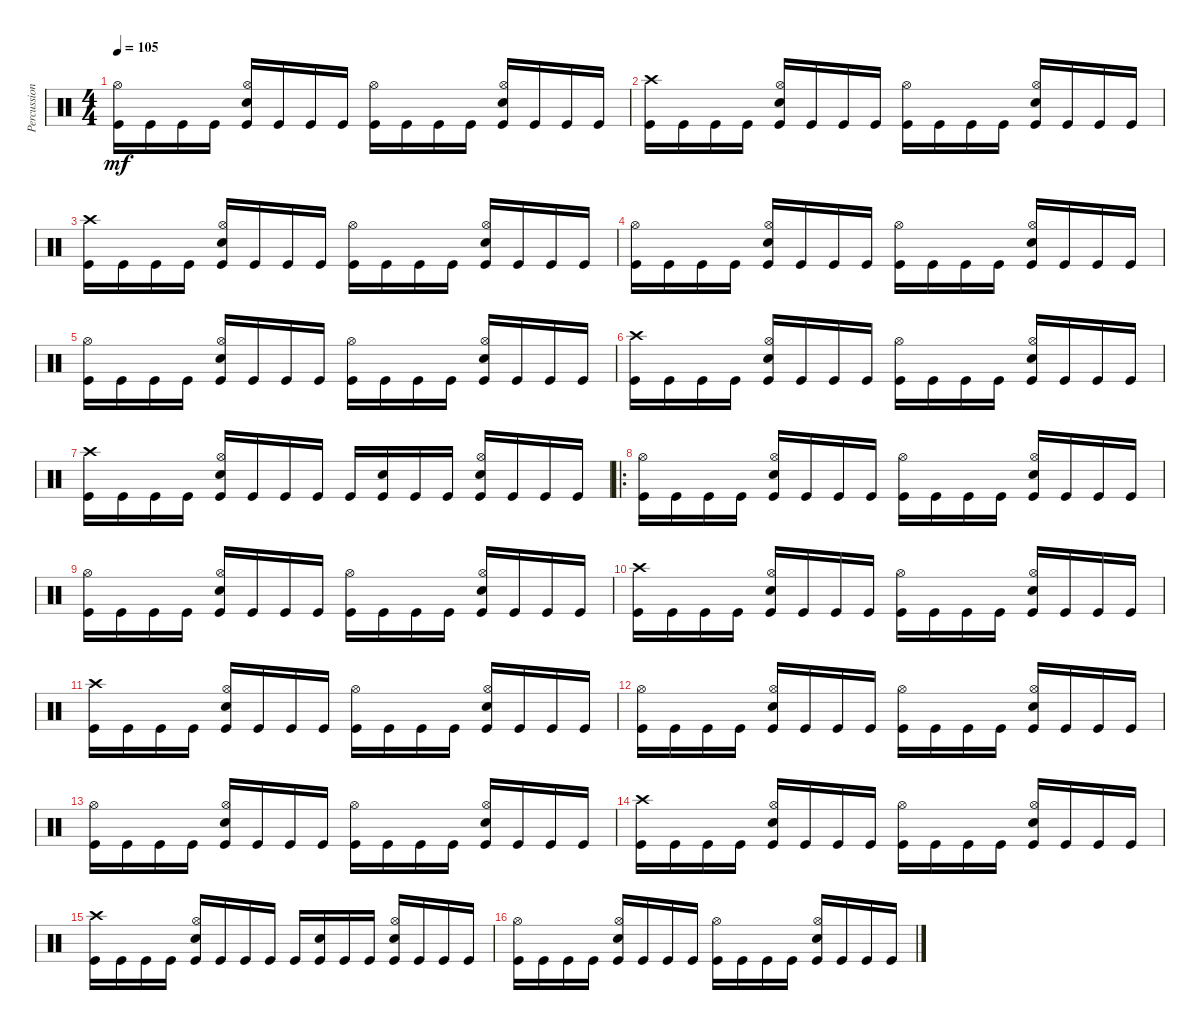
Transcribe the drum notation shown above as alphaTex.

\track ("Percussions" "Percussion") {instrument percussion}
\staff {score}
\articulation defaults
\ts (4 4)
\tempo 105
\clef neutral
\ks c
("Kick (hit)" "Hi-Hat (open)").16{dy mf} "Kick (hit)".16 "Kick (hit)".16 "Kick (hit)".16 ("Kick (hit)" "Electric Snare (hit)" "Hi-Hat (open)").16 "Kick (hit)".16 "Kick (hit)".16 "Kick (hit)".16 ("Kick (hit)" "Hi-Hat (open)").16 "Kick (hit)".16 "Kick (hit)".16 "Kick (hit)".16 ("Kick (hit)" "Electric Snare (hit)" "Hi-Hat (open)").16 "Kick (hit)".16 "Kick (hit)".16 "Kick (hit)".16 |
("Kick (hit)" "Crash high (hit)").16 "Kick (hit)".16 "Kick (hit)".16 "Kick (hit)".16 ("Kick (hit)" "Electric Snare (hit)" "Hi-Hat (open)").16 "Kick (hit)".16 "Kick (hit)".16 "Kick (hit)".16 ("Kick (hit)" "Hi-Hat (open)").16 "Kick (hit)".16 "Kick (hit)".16 "Kick (hit)".16 ("Kick (hit)" "Electric Snare (hit)" "Hi-Hat (open)").16 "Kick (hit)".16 "Kick (hit)".16 "Kick (hit)".16 |
("Kick (hit)" "Crash high (hit)").16 "Kick (hit)".16 "Kick (hit)".16 "Kick (hit)".16 ("Kick (hit)" "Electric Snare (hit)" "Hi-Hat (open)").16 "Kick (hit)".16 "Kick (hit)".16 "Kick (hit)".16 ("Kick (hit)" "Hi-Hat (open)").16 "Kick (hit)".16 "Kick (hit)".16 "Kick (hit)".16 ("Kick (hit)" "Electric Snare (hit)" "Hi-Hat (open)").16 "Kick (hit)".16 "Kick (hit)".16 "Kick (hit)".16 |
("Kick (hit)" "Hi-Hat (open)").16 "Kick (hit)".16 "Kick (hit)".16 "Kick (hit)".16 ("Kick (hit)" "Electric Snare (hit)" "Hi-Hat (open)").16 "Kick (hit)".16 "Kick (hit)".16 "Kick (hit)".16 ("Kick (hit)" "Hi-Hat (open)").16 "Kick (hit)".16 "Kick (hit)".16 "Kick (hit)".16 ("Kick (hit)" "Electric Snare (hit)" "Hi-Hat (open)").16 "Kick (hit)".16 "Kick (hit)".16 "Kick (hit)".16 |
("Kick (hit)" "Hi-Hat (open)").16 "Kick (hit)".16 "Kick (hit)".16 "Kick (hit)".16 ("Kick (hit)" "Electric Snare (hit)" "Hi-Hat (open)").16 "Kick (hit)".16 "Kick (hit)".16 "Kick (hit)".16 ("Kick (hit)" "Hi-Hat (open)").16 "Kick (hit)".16 "Kick (hit)".16 "Kick (hit)".16 ("Kick (hit)" "Electric Snare (hit)" "Hi-Hat (open)").16 "Kick (hit)".16 "Kick (hit)".16 "Kick (hit)".16 |
("Kick (hit)" "Crash high (hit)").16 "Kick (hit)".16 "Kick (hit)".16 "Kick (hit)".16 ("Kick (hit)" "Electric Snare (hit)" "Hi-Hat (open)").16 "Kick (hit)".16 "Kick (hit)".16 "Kick (hit)".16 ("Kick (hit)" "Hi-Hat (open)").16 "Kick (hit)".16 "Kick (hit)".16 "Kick (hit)".16 ("Kick (hit)" "Electric Snare (hit)" "Hi-Hat (open)").16 "Kick (hit)".16 "Kick (hit)".16 "Kick (hit)".16 |
("Kick (hit)" "Crash high (hit)").16 "Kick (hit)".16 "Kick (hit)".16 "Kick (hit)".16 ("Kick (hit)" "Electric Snare (hit)" "Hi-Hat (open)").16 "Kick (hit)".16 "Kick (hit)".16 "Kick (hit)".16 "Kick (hit)".16 ("Kick (hit)" "Electric Snare (hit)").16 "Kick (hit)".16 "Kick (hit)".16 ("Kick (hit)" "Electric Snare (hit)" "Hi-Hat (open)").16 "Kick (hit)".16 "Kick (hit)".16 "Kick (hit)".16 |
\ro
("Kick (hit)" "Hi-Hat (open)").16 "Kick (hit)".16 "Kick (hit)".16 "Kick (hit)".16 ("Kick (hit)" "Electric Snare (hit)" "Hi-Hat (open)").16 "Kick (hit)".16 "Kick (hit)".16 "Kick (hit)".16 ("Kick (hit)" "Hi-Hat (open)").16 "Kick (hit)".16 "Kick (hit)".16 "Kick (hit)".16 ("Kick (hit)" "Electric Snare (hit)" "Hi-Hat (open)").16 "Kick (hit)".16 "Kick (hit)".16 "Kick (hit)".16 |
("Kick (hit)" "Hi-Hat (open)").16 "Kick (hit)".16 "Kick (hit)".16 "Kick (hit)".16 ("Kick (hit)" "Electric Snare (hit)" "Hi-Hat (open)").16 "Kick (hit)".16 "Kick (hit)".16 "Kick (hit)".16 ("Kick (hit)" "Hi-Hat (open)").16 "Kick (hit)".16 "Kick (hit)".16 "Kick (hit)".16 ("Kick (hit)" "Electric Snare (hit)" "Hi-Hat (open)").16 "Kick (hit)".16 "Kick (hit)".16 "Kick (hit)".16 |
("Kick (hit)" "Crash high (hit)").16 "Kick (hit)".16 "Kick (hit)".16 "Kick (hit)".16 ("Kick (hit)" "Electric Snare (hit)" "Hi-Hat (open)").16 "Kick (hit)".16 "Kick (hit)".16 "Kick (hit)".16 ("Kick (hit)" "Hi-Hat (open)").16 "Kick (hit)".16 "Kick (hit)".16 "Kick (hit)".16 ("Kick (hit)" "Electric Snare (hit)" "Hi-Hat (open)").16 "Kick (hit)".16 "Kick (hit)".16 "Kick (hit)".16 |
("Kick (hit)" "Crash high (hit)").16 "Kick (hit)".16 "Kick (hit)".16 "Kick (hit)".16 ("Kick (hit)" "Electric Snare (hit)" "Hi-Hat (open)").16 "Kick (hit)".16 "Kick (hit)".16 "Kick (hit)".16 ("Kick (hit)" "Hi-Hat (open)").16 "Kick (hit)".16 "Kick (hit)".16 "Kick (hit)".16 ("Kick (hit)" "Electric Snare (hit)" "Hi-Hat (open)").16 "Kick (hit)".16 "Kick (hit)".16 "Kick (hit)".16 |
("Kick (hit)" "Hi-Hat (open)").16 "Kick (hit)".16 "Kick (hit)".16 "Kick (hit)".16 ("Kick (hit)" "Electric Snare (hit)" "Hi-Hat (open)").16 "Kick (hit)".16 "Kick (hit)".16 "Kick (hit)".16 ("Kick (hit)" "Hi-Hat (open)").16 "Kick (hit)".16 "Kick (hit)".16 "Kick (hit)".16 ("Kick (hit)" "Electric Snare (hit)" "Hi-Hat (open)").16 "Kick (hit)".16 "Kick (hit)".16 "Kick (hit)".16 |
("Kick (hit)" "Hi-Hat (open)").16 "Kick (hit)".16 "Kick (hit)".16 "Kick (hit)".16 ("Kick (hit)" "Electric Snare (hit)" "Hi-Hat (open)").16 "Kick (hit)".16 "Kick (hit)".16 "Kick (hit)".16 ("Kick (hit)" "Hi-Hat (open)").16 "Kick (hit)".16 "Kick (hit)".16 "Kick (hit)".16 ("Kick (hit)" "Electric Snare (hit)" "Hi-Hat (open)").16 "Kick (hit)".16 "Kick (hit)".16 "Kick (hit)".16 |
("Kick (hit)" "Crash high (hit)").16 "Kick (hit)".16 "Kick (hit)".16 "Kick (hit)".16 ("Kick (hit)" "Electric Snare (hit)" "Hi-Hat (open)").16 "Kick (hit)".16 "Kick (hit)".16 "Kick (hit)".16 ("Kick (hit)" "Hi-Hat (open)").16 "Kick (hit)".16 "Kick (hit)".16 "Kick (hit)".16 ("Kick (hit)" "Electric Snare (hit)" "Hi-Hat (open)").16 "Kick (hit)".16 "Kick (hit)".16 "Kick (hit)".16 |
("Kick (hit)" "Crash high (hit)").16 "Kick (hit)".16 "Kick (hit)".16 "Kick (hit)".16 ("Kick (hit)" "Electric Snare (hit)" "Hi-Hat (open)").16 "Kick (hit)".16 "Kick (hit)".16 "Kick (hit)".16 "Kick (hit)".16 ("Kick (hit)" "Electric Snare (hit)").16 "Kick (hit)".16 "Kick (hit)".16 ("Kick (hit)" "Electric Snare (hit)" "Hi-Hat (open)").16 "Kick (hit)".16 "Kick (hit)".16 "Kick (hit)".16 |
("Kick (hit)" "Hi-Hat (open)").16 "Kick (hit)".16 "Kick (hit)".16 "Kick (hit)".16 ("Kick (hit)" "Electric Snare (hit)" "Hi-Hat (open)").16 "Kick (hit)".16 "Kick (hit)".16 "Kick (hit)".16 ("Kick (hit)" "Hi-Hat (open)").16 "Kick (hit)".16 "Kick (hit)".16 "Kick (hit)".16 ("Kick (hit)" "Electric Snare (hit)" "Hi-Hat (open)").16 "Kick (hit)".16 "Kick (hit)".16 "Kick (hit)".16
